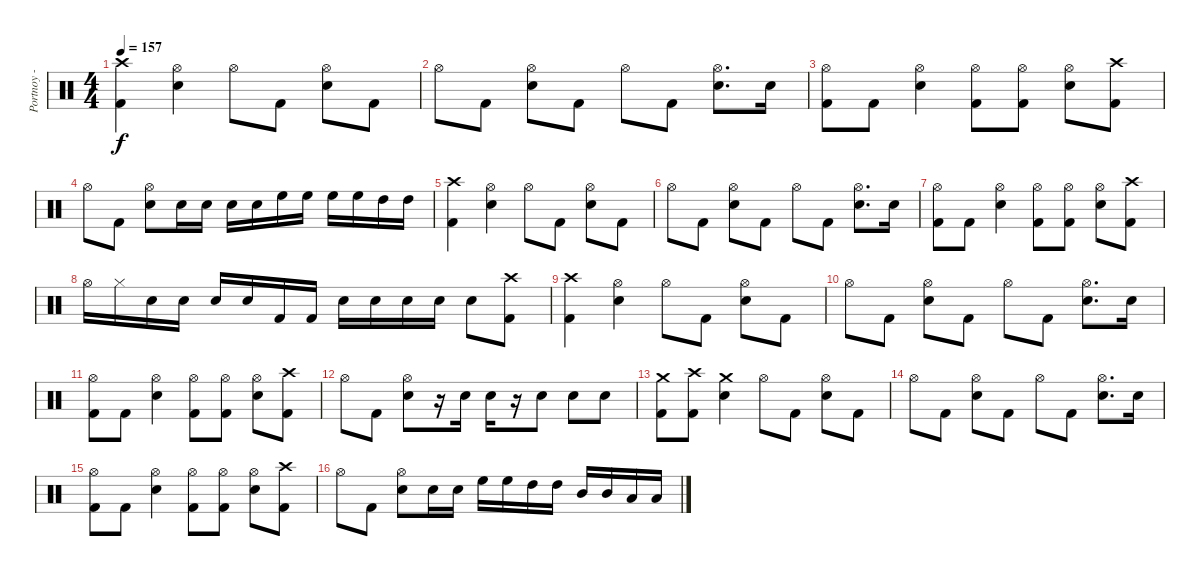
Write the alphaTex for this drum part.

\track ("Portnoy - Drums" "Portnoy - ") {instrument percussion}
\staff {score}
\articulation defaults
\ts (4 4)
\tempo 157
\clef neutral
\ks c
("Kick (hit) 2" "Crash high (hit)").4{dy f} ("Electric Snare (hit)" "Hi-Hat (open)").4 "Hi-Hat (open)".8 "Kick (hit) 2".8 ("Electric Snare (hit)" "Hi-Hat (open)").8 "Kick (hit) 2".8 |
"Hi-Hat (open)".8 "Kick (hit) 2".8 ("Hi-Hat (open)" "Electric Snare (hit)").8 "Kick (hit) 2".8 "Hi-Hat (open)".8 "Kick (hit) 2".8 ("Hi-Hat (open)" "Electric Snare (hit)").8{d} "Electric Snare (hit)".16 |
("Kick (hit) 2" "Hi-Hat (open)").8 "Kick (hit) 2".8 ("Electric Snare (hit)" "Hi-Hat (open)").4 ("Kick (hit) 2" "Hi-Hat (open)").8 ("Kick (hit) 2" "Hi-Hat (open)").8 ("Hi-Hat (open)" "Electric Snare (hit)").8 ("Kick (hit) 2" "Crash high (hit)").8 |
"Hi-Hat (open)".8 "Kick (hit) 2".8 ("Electric Snare (hit)" "Hi-Hat (open)").8 "Electric Snare (hit)".16 "Electric Snare (hit)".16 "Electric Snare (hit)".16 "Electric Snare (hit)".16 "High Floor Tom (hit)".16 "High Floor Tom (hit)".16 "High Floor Tom (hit)".16 "High Floor Tom (hit)".16 "High Tom (hit)".16 "High Tom (hit)".16 |
("Crash high (hit)" "Kick (hit) 2").4 ("Electric Snare (hit)" "Hi-Hat (open)").4 "Hi-Hat (open)".8 "Kick (hit) 2".8 ("Electric Snare (hit)" "Hi-Hat (open)").8 "Kick (hit) 2".8 |
"Hi-Hat (open)".8 "Kick (hit) 2".8 ("Hi-Hat (open)" "Electric Snare (hit)").8 "Kick (hit) 2".8 "Hi-Hat (open)".8 "Kick (hit) 2".8 ("Hi-Hat (open)" "Electric Snare (hit)").8{d} "Electric Snare (hit)".16 |
("Kick (hit) 2" "Hi-Hat (open)").8 "Kick (hit) 2".8 ("Electric Snare (hit)" "Hi-Hat (open)").4 ("Kick (hit) 2" "Hi-Hat (open)").8 ("Kick (hit) 2" "Hi-Hat (open)").8 ("Hi-Hat (open)" "Electric Snare (hit)").8 ("Crash high (hit)" "Kick (hit) 2").8 |
"Hi-Hat (open)".16 "Hi-Hat (closed)".16 "Electric Snare (hit)".16 "Electric Snare (hit)".16 "Electric Snare (hit)".16 "Electric Snare (hit)".16 "Kick (hit) 2".16 "Kick (hit) 2".16 "Electric Snare (hit)".16 "Electric Snare (hit)".16 "Electric Snare (hit)".16 "Electric Snare (hit)".16 "Electric Snare (hit)".8 ("Crash high (hit)" "Kick (hit) 2").8 |
("Crash high (hit)" "Kick (hit) 2").4 ("Electric Snare (hit)" "Hi-Hat (open)").4 "Hi-Hat (open)".8 "Kick (hit) 2".8 ("Electric Snare (hit)" "Hi-Hat (open)").8 "Kick (hit) 2".8 |
"Hi-Hat (open)".8 "Kick (hit) 2".8 ("Hi-Hat (open)" "Electric Snare (hit)").8 "Kick (hit) 2".8 "Hi-Hat (open)".8 "Kick (hit) 2".8 ("Hi-Hat (open)" "Electric Snare (hit)").8{d} "Electric Snare (hit)".16 |
("Kick (hit) 2" "Hi-Hat (open)").8 "Kick (hit) 2".8 ("Electric Snare (hit)" "Hi-Hat (open)").4 ("Kick (hit) 2" "Hi-Hat (open)").8 ("Kick (hit) 2" "Hi-Hat (open)").8 ("Hi-Hat (open)" "Electric Snare (hit)").8 ("Kick (hit) 2" "Crash high (hit)").8 |
"Hi-Hat (open)".8 "Kick (hit) 2".8 ("Electric Snare (hit)" "Hi-Hat (open)").8 r.16 "Electric Snare (hit)".16 "Electric Snare (hit)".16 r.16 "Electric Snare (hit)".8 "Electric Snare (hit)".8 "Electric Snare (hit)".8 |
("Kick (hit) 2" "Crash medium (hit)").8 ("Kick (hit) 2" "Crash high (hit)").8 ("Electric Snare (hit)" "Crash medium (hit)").4 "Hi-Hat (open)".8 "Kick (hit) 2".8 ("Electric Snare (hit)" "Hi-Hat (open)").8 "Kick (hit) 2".8 |
"Hi-Hat (open)".8 "Kick (hit) 2".8 ("Hi-Hat (open)" "Electric Snare (hit)").8 "Kick (hit) 2".8 "Hi-Hat (open)".8 "Kick (hit) 2".8 ("Hi-Hat (open)" "Electric Snare (hit)").8{d} "Electric Snare (hit)".16 |
("Kick (hit) 2" "Hi-Hat (open)").8 "Kick (hit) 2".8 ("Electric Snare (hit)" "Hi-Hat (open)").4 ("Kick (hit) 2" "Hi-Hat (open)").8 ("Kick (hit) 2" "Hi-Hat (open)").8 ("Hi-Hat (open)" "Electric Snare (hit)").8 ("Kick (hit) 2" "Crash high (hit)").8 |
"Hi-Hat (open)".8 "Kick (hit) 2".8 ("Electric Snare (hit)" "Hi-Hat (open)").8 "Electric Snare (hit)".16 "Electric Snare (hit)".16 "High Floor Tom (hit)".16 "High Floor Tom (hit)".16 "High Tom (hit)".16 "High Tom (hit)".16 "Mid Tom (hit)".16 "Mid Tom (hit)".16 "Low Tom (hit)".16 "Low Tom (hit)".16
